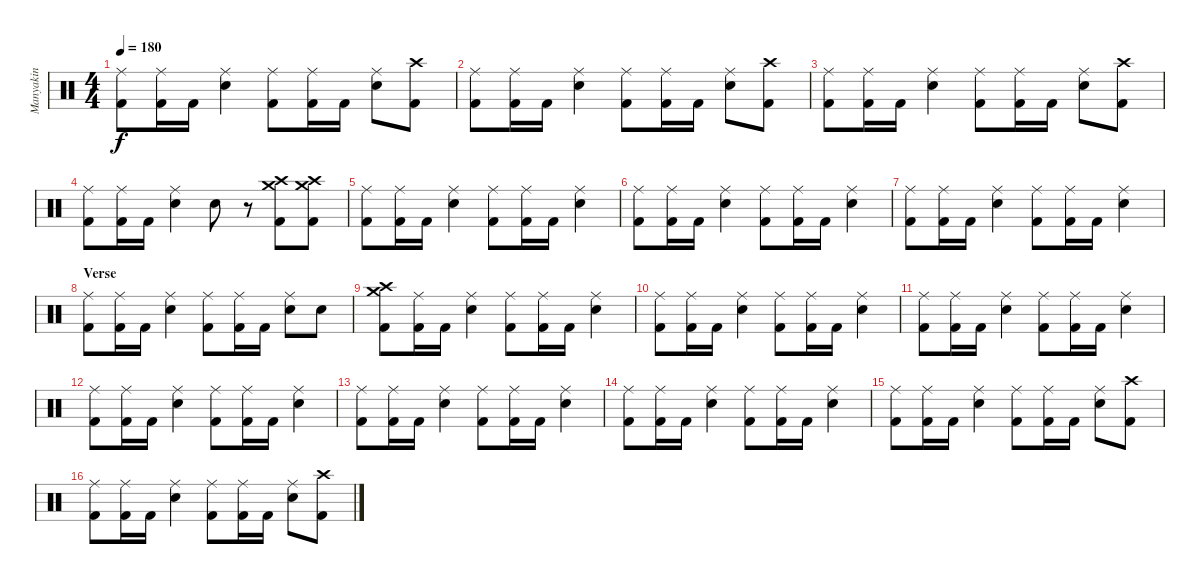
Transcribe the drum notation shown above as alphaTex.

\track ("Manyakin" "Manyakin") {instrument percussion}
\staff {score}
\articulation defaults
\ts (4 4)
\tempo 180
\clef neutral
\ks c
("Kick (hit) 2" "Ride (middle)").8{dy f} ("Kick (hit) 2" "Ride (middle)").16 "Kick (hit) 2".16 ("Snare (hit) 2" "Ride (middle)").4 ("Kick (hit) 2" "Ride (middle)").8 ("Kick (hit) 2" "Ride (middle)").16 "Kick (hit) 2".16 ("Snare (hit) 2" "Ride (middle)").8 ("Kick (hit) 2" "Crash high (hit)").8 |
("Kick (hit) 2" "Ride (middle)").8 ("Kick (hit) 2" "Ride (middle)").16 "Kick (hit) 2".16 ("Snare (hit) 2" "Ride (middle)").4 ("Kick (hit) 2" "Ride (middle)").8 ("Kick (hit) 2" "Ride (middle)").16 "Kick (hit) 2".16 ("Snare (hit) 2" "Ride (middle)").8 ("Kick (hit) 2" "Crash high (hit)").8 |
("Kick (hit) 2" "Ride (middle)").8 ("Kick (hit) 2" "Ride (middle)").16 "Kick (hit) 2".16 ("Snare (hit) 2" "Ride (middle)").4 ("Kick (hit) 2" "Ride (middle)").8 ("Kick (hit) 2" "Ride (middle)").16 "Kick (hit) 2".16 ("Snare (hit) 2" "Ride (middle)").8 ("Kick (hit) 2" "Crash high (hit)").8 |
("Kick (hit) 2" "Ride (middle)").8 ("Kick (hit) 2" "Ride (middle)").16 "Kick (hit) 2".16 ("Snare (hit) 2" "Ride (middle)").4 "Snare (hit) 2".8 r.8 ("Kick (hit) 2" "Crash medium (hit)" "Crash high (hit)").8 ("Kick (hit) 2" "Crash high (hit)" "Crash medium (hit)").8 |
("Kick (hit) 2" "Ride (middle)").8 ("Kick (hit) 2" "Ride (middle)").16 "Kick (hit) 2".16 ("Snare (hit) 2" "Ride (middle)").4 ("Kick (hit) 2" "Ride (middle)").8 ("Kick (hit) 2" "Ride (middle)").16 "Kick (hit) 2".16 ("Snare (hit) 2" "Ride (middle)").4 |
("Kick (hit) 2" "Ride (middle)").8 ("Kick (hit) 2" "Ride (middle)").16 "Kick (hit) 2".16 ("Snare (hit) 2" "Ride (middle)").4 ("Kick (hit) 2" "Ride (middle)").8 ("Kick (hit) 2" "Ride (middle)").16 "Kick (hit) 2".16 ("Snare (hit) 2" "Ride (middle)").4 |
("Kick (hit) 2" "Ride (middle)").8 ("Kick (hit) 2" "Ride (middle)").16 "Kick (hit) 2".16 ("Snare (hit) 2" "Ride (middle)").4 ("Kick (hit) 2" "Ride (middle)").8 ("Kick (hit) 2" "Ride (middle)").16 "Kick (hit) 2".16 ("Snare (hit) 2" "Ride (middle)").4 |
\section ("" "Verse")
("Kick (hit) 2" "Ride (middle)").8 ("Kick (hit) 2" "Ride (middle)").16 "Kick (hit) 2".16 ("Snare (hit) 2" "Ride (middle)").4 ("Kick (hit) 2" "Ride (middle)").8 ("Kick (hit) 2" "Ride (middle)").16 "Kick (hit) 2".16 ("Snare (hit) 2" "Ride (middle)").8 "Snare (hit) 2".8 |
("Kick (hit) 2" "Crash high (hit)" "Crash medium (hit)").8 ("Kick (hit) 2" "Ride (middle)").16 "Kick (hit) 2".16 ("Snare (hit) 2" "Ride (middle)").4 ("Kick (hit) 2" "Ride (middle)").8 ("Kick (hit) 2" "Ride (middle)").16 "Kick (hit) 2".16 ("Snare (hit) 2" "Ride (middle)").4 |
("Kick (hit) 2" "Ride (middle)").8 ("Kick (hit) 2" "Ride (middle)").16 "Kick (hit) 2".16 ("Snare (hit) 2" "Ride (middle)").4 ("Kick (hit) 2" "Ride (middle)").8 ("Kick (hit) 2" "Ride (middle)").16 "Kick (hit) 2".16 ("Snare (hit) 2" "Ride (middle)").4 |
("Kick (hit) 2" "Ride (middle)").8 ("Kick (hit) 2" "Ride (middle)").16 "Kick (hit) 2".16 ("Snare (hit) 2" "Ride (middle)").4 ("Kick (hit) 2" "Ride (middle)").8 ("Kick (hit) 2" "Ride (middle)").16 "Kick (hit) 2".16 ("Snare (hit) 2" "Ride (middle)").4 |
("Kick (hit) 2" "Ride (middle)").8 ("Kick (hit) 2" "Ride (middle)").16 "Kick (hit) 2".16 ("Snare (hit) 2" "Ride (middle)").4 ("Kick (hit) 2" "Ride (middle)").8 ("Kick (hit) 2" "Ride (middle)").16 "Kick (hit) 2".16 ("Snare (hit) 2" "Ride (middle)").4 |
("Kick (hit) 2" "Ride (middle)").8 ("Kick (hit) 2" "Ride (middle)").16 "Kick (hit) 2".16 ("Snare (hit) 2" "Ride (middle)").4 ("Kick (hit) 2" "Ride (middle)").8 ("Kick (hit) 2" "Ride (middle)").16 "Kick (hit) 2".16 ("Snare (hit) 2" "Ride (middle)").4 |
("Kick (hit) 2" "Ride (middle)").8 ("Kick (hit) 2" "Ride (middle)").16 "Kick (hit) 2".16 ("Snare (hit) 2" "Ride (middle)").4 ("Kick (hit) 2" "Ride (middle)").8 ("Kick (hit) 2" "Ride (middle)").16 "Kick (hit) 2".16 ("Snare (hit) 2" "Ride (middle)").4 |
("Kick (hit) 2" "Ride (middle)").8 ("Kick (hit) 2" "Ride (middle)").16 "Kick (hit) 2".16 ("Snare (hit) 2" "Ride (middle)").4 ("Kick (hit) 2" "Ride (middle)").8 ("Kick (hit) 2" "Ride (middle)").16 "Kick (hit) 2".16 ("Snare (hit) 2" "Ride (middle)").8 ("Kick (hit) 2" "Crash high (hit)").8 |
("Kick (hit) 2" "Ride (middle)").8 ("Kick (hit) 2" "Ride (middle)").16 "Kick (hit) 2".16 ("Snare (hit) 2" "Ride (middle)").4 ("Kick (hit) 2" "Ride (middle)").8 ("Kick (hit) 2" "Ride (middle)").16 "Kick (hit) 2".16 ("Snare (hit) 2" "Ride (middle)").8 ("Kick (hit) 2" "Crash high (hit)").8
